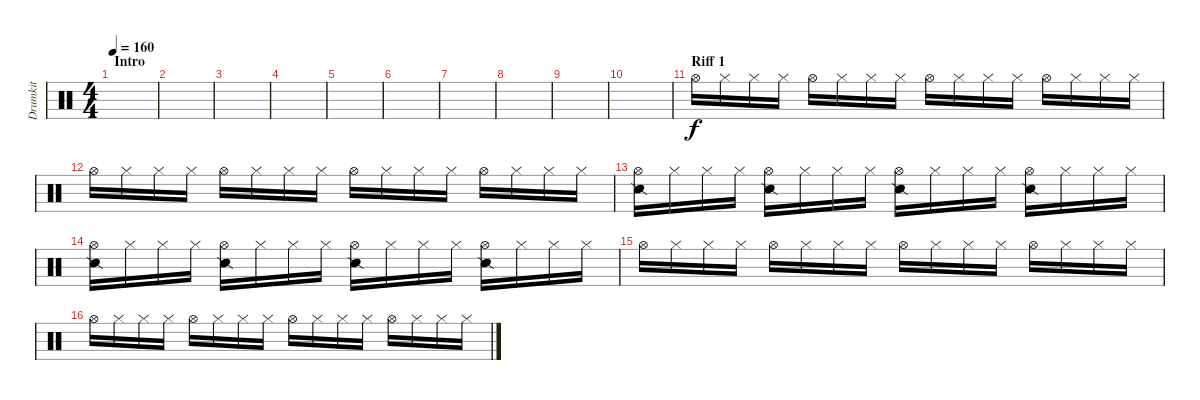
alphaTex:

\track ("Drumkit" "Drumkit") {instrument percussion}
\staff {score}
\articulation defaults
\ts (4 4)
\section ("" "Intro")
\tempo 160
\clef neutral
\ks c
|
|
|
|
|
|
|
|
|
|
\section ("" "Riff 1")
"Hi-Hat (open)".16 "Hi-Hat (closed)".16 "Hi-Hat (closed)".16 "Hi-Hat (closed)".16 "Hi-Hat (open)".16 "Hi-Hat (closed)".16 "Hi-Hat (closed)".16 "Hi-Hat (closed)".16 "Hi-Hat (open)".16 "Hi-Hat (closed)".16 "Hi-Hat (closed)".16 "Hi-Hat (closed)".16 "Hi-Hat (open)".16 "Hi-Hat (closed)".16 "Hi-Hat (closed)".16 "Hi-Hat (closed)".16 |
"Hi-Hat (open)".16 "Hi-Hat (closed)".16 "Hi-Hat (closed)".16 "Hi-Hat (closed)".16 "Hi-Hat (open)".16 "Hi-Hat (closed)".16 "Hi-Hat (closed)".16 "Hi-Hat (closed)".16 "Hi-Hat (open)".16 "Hi-Hat (closed)".16 "Hi-Hat (closed)".16 "Hi-Hat (closed)".16 "Hi-Hat (open)".16 "Hi-Hat (closed)".16 "Hi-Hat (closed)".16 "Hi-Hat (closed)".16 |
("Hi-Hat (open)" "Snare (side stick) 2").16 "Hi-Hat (closed)".16 "Hi-Hat (closed)".16 "Hi-Hat (closed)".16 ("Hi-Hat (open)" "Snare (side stick) 2").16 "Hi-Hat (closed)".16 "Hi-Hat (closed)".16 "Hi-Hat (closed)".16 ("Hi-Hat (open)" "Snare (side stick) 2").16 "Hi-Hat (closed)".16 "Hi-Hat (closed)".16 "Hi-Hat (closed)".16 ("Hi-Hat (open)" "Snare (side stick) 2").16 "Hi-Hat (closed)".16 "Hi-Hat (closed)".16 "Hi-Hat (closed)".16 |
("Hi-Hat (open)" "Snare (side stick) 2").16 "Hi-Hat (closed)".16 "Hi-Hat (closed)".16 "Hi-Hat (closed)".16 ("Hi-Hat (open)" "Snare (side stick) 2").16 "Hi-Hat (closed)".16 "Hi-Hat (closed)".16 "Hi-Hat (closed)".16 ("Hi-Hat (open)" "Snare (side stick) 2").16 "Hi-Hat (closed)".16 "Hi-Hat (closed)".16 "Hi-Hat (closed)".16 ("Hi-Hat (open)" "Snare (side stick) 2").16 "Hi-Hat (closed)".16 "Hi-Hat (closed)".16 "Hi-Hat (closed)".16 |
"Hi-Hat (open)".16 "Hi-Hat (closed)".16 "Hi-Hat (closed)".16 "Hi-Hat (closed)".16 "Hi-Hat (open)".16 "Hi-Hat (closed)".16 "Hi-Hat (closed)".16 "Hi-Hat (closed)".16 "Hi-Hat (open)".16 "Hi-Hat (closed)".16 "Hi-Hat (closed)".16 "Hi-Hat (closed)".16 "Hi-Hat (open)".16 "Hi-Hat (closed)".16 "Hi-Hat (closed)".16 "Hi-Hat (closed)".16 |
"Hi-Hat (open)".16 "Hi-Hat (closed)".16 "Hi-Hat (closed)".16 "Hi-Hat (closed)".16 "Hi-Hat (open)".16 "Hi-Hat (closed)".16 "Hi-Hat (closed)".16 "Hi-Hat (closed)".16 "Hi-Hat (open)".16 "Hi-Hat (closed)".16 "Hi-Hat (closed)".16 "Hi-Hat (closed)".16 "Hi-Hat (open)".16 "Hi-Hat (closed)".16 "Hi-Hat (closed)".16 "Hi-Hat (closed)".16
